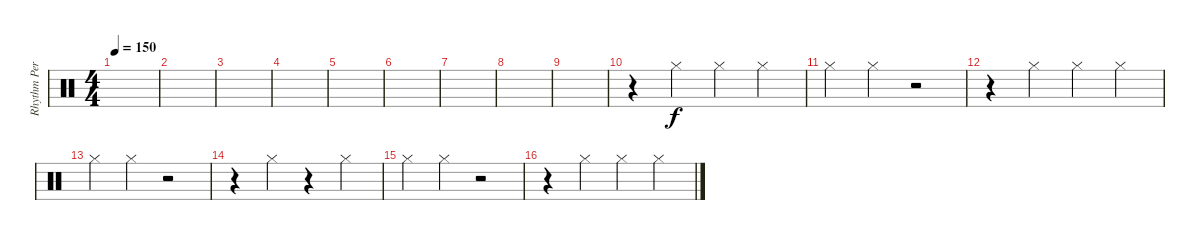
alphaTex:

\track ("Rhythm Percussion" "Rhythm Per") {instrument percussion}
\staff {score}
\articulation defaults
\ts (4 4)
\tempo 150
\clef neutral
\ks c
|
|
|
|
|
|
|
|
|
r.4 "Hi-Hat (closed)".4 "Hi-Hat (closed)".4 "Hi-Hat (closed)".4 |
"Hi-Hat (closed)".4 "Hi-Hat (closed)".4 r.2 |
r.4 "Hi-Hat (closed)".4 "Hi-Hat (closed)".4 "Hi-Hat (closed)".4 |
"Hi-Hat (closed)".4 "Hi-Hat (closed)".4 r.2 |
r.4 "Hi-Hat (closed)".4 r.4 "Hi-Hat (closed)".4 |
"Hi-Hat (closed)".4 "Hi-Hat (closed)".4 r.2 |
r.4 "Hi-Hat (closed)".4 "Hi-Hat (closed)".4 "Hi-Hat (closed)".4
